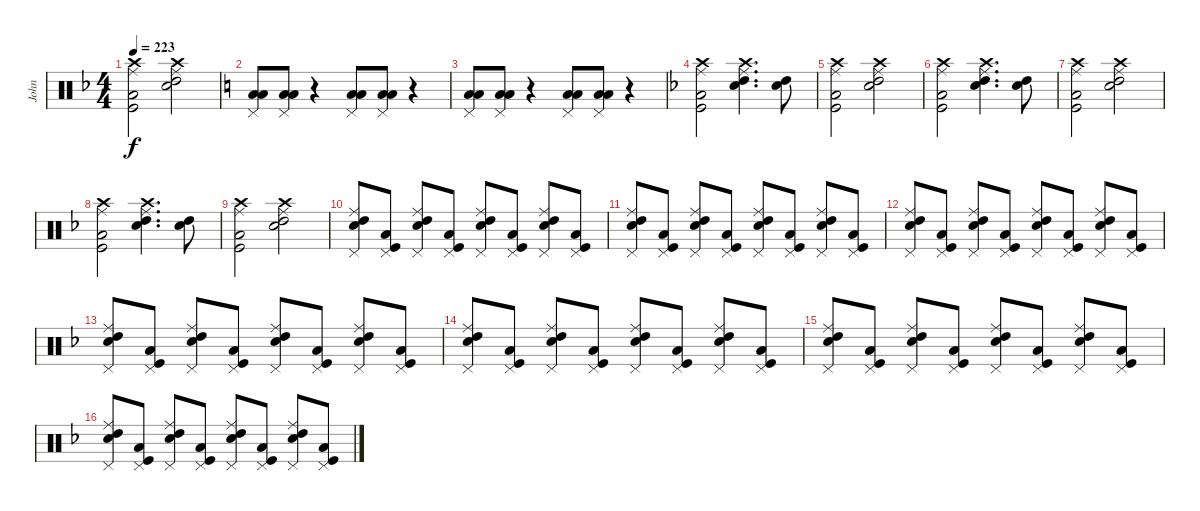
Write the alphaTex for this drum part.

\track ("John" "John") {instrument percussion}
\staff {score}
\articulation defaults
\ts (4 4)
\tempo 223
\clef neutral
\ks f
("Crash high (hit)" "Ride (middle)" "Kick (hit)" "Low Tom (hit)").2{dy f} ("Crash high (hit)" "Ride (middle)" "Snare (hit) 2" "High Tom (hit)").2 |
\ks c
("Pedal Hi-Hat (hit)" "Low Tom (hit)" "Low Tom (hit)").8 ("Pedal Hi-Hat (hit)" "Low Tom (hit)" "Low Tom (hit)").8 r.4 ("Pedal Hi-Hat (hit)" "Low Tom (hit)" "Low Tom (hit)").8 ("Pedal Hi-Hat (hit)" "Low Tom (hit)" "Low Tom (hit)").8 r.4 |
("Pedal Hi-Hat (hit)" "Low Tom (hit)" "Low Tom (hit)").8 ("Pedal Hi-Hat (hit)" "Low Tom (hit)" "Low Tom (hit)").8 r.4 ("Pedal Hi-Hat (hit)" "Low Tom (hit)" "Low Tom (hit)").8 ("Pedal Hi-Hat (hit)" "Low Tom (hit)" "Low Tom (hit)").8 r.4 |
\ks f
("Crash high (hit)" "Ride (middle)" "Kick (hit)" "Low Tom (hit)").2 ("Crash high (hit)" "Ride (middle)" "Snare (hit) 2" "High Tom (hit)").4{d} ("Snare (hit) 2" "High Tom (hit)").8 |
("Crash high (hit)" "Ride (middle)" "Kick (hit)" "Low Tom (hit)").2 ("Crash high (hit)" "Ride (middle)" "Snare (hit) 2" "High Tom (hit)").2 |
("Crash high (hit)" "Ride (middle)" "Kick (hit)" "Low Tom (hit)").2 ("Crash high (hit)" "Ride (middle)" "Snare (hit) 2" "High Tom (hit)").4{d} ("Snare (hit) 2" "High Tom (hit)").8 |
("Crash high (hit)" "Ride (middle)" "Kick (hit)" "Low Tom (hit)").2 ("Crash high (hit)" "Ride (middle)" "Snare (hit) 2" "High Tom (hit)").2 |
("Crash high (hit)" "Ride (middle)" "Kick (hit)" "Low Tom (hit)").2 ("Crash high (hit)" "Ride (middle)" "Snare (hit) 2" "High Tom (hit)").4{d} ("Snare (hit) 2" "High Tom (hit)").8 |
("Crash high (hit)" "Ride (middle)" "Kick (hit)" "Low Tom (hit)").2 ("Crash high (hit)" "Ride (middle)" "Snare (hit) 2" "High Tom (hit)").2 |
("Ride (middle)" "Snare (hit) 2" "High Tom (hit)" "Pedal Hi-Hat (hit)").8 ("Kick (hit)" "Low Tom (hit)" "Pedal Hi-Hat (hit)").8 ("Ride (middle)" "Snare (hit) 2" "High Tom (hit)" "Pedal Hi-Hat (hit)").8 ("Kick (hit)" "Low Tom (hit)" "Pedal Hi-Hat (hit)").8 ("Ride (middle)" "Snare (hit) 2" "High Tom (hit)" "Pedal Hi-Hat (hit)").8 ("Kick (hit)" "Low Tom (hit)" "Pedal Hi-Hat (hit)").8 ("Ride (middle)" "Snare (hit) 2" "High Tom (hit)" "Pedal Hi-Hat (hit)").8 ("Kick (hit)" "Low Tom (hit)" "Pedal Hi-Hat (hit)").8 |
("Ride (middle)" "Snare (hit) 2" "High Tom (hit)" "Pedal Hi-Hat (hit)").8 ("Kick (hit)" "Low Tom (hit)" "Pedal Hi-Hat (hit)").8 ("Ride (middle)" "Snare (hit) 2" "High Tom (hit)" "Pedal Hi-Hat (hit)").8 ("Kick (hit)" "Low Tom (hit)" "Pedal Hi-Hat (hit)").8 ("Ride (middle)" "Snare (hit) 2" "High Tom (hit)" "Pedal Hi-Hat (hit)").8 ("Kick (hit)" "Low Tom (hit)" "Pedal Hi-Hat (hit)").8 ("Ride (middle)" "Snare (hit) 2" "High Tom (hit)" "Pedal Hi-Hat (hit)").8 ("Kick (hit)" "Low Tom (hit)" "Pedal Hi-Hat (hit)").8 |
("Ride (middle)" "Snare (hit) 2" "High Tom (hit)" "Pedal Hi-Hat (hit)").8 ("Kick (hit)" "Low Tom (hit)" "Pedal Hi-Hat (hit)").8 ("Ride (middle)" "Snare (hit) 2" "High Tom (hit)" "Pedal Hi-Hat (hit)").8 ("Kick (hit)" "Low Tom (hit)" "Pedal Hi-Hat (hit)").8 ("Ride (middle)" "Snare (hit) 2" "High Tom (hit)" "Pedal Hi-Hat (hit)").8 ("Kick (hit)" "Low Tom (hit)" "Pedal Hi-Hat (hit)").8 ("Ride (middle)" "Snare (hit) 2" "High Tom (hit)" "Pedal Hi-Hat (hit)").8 ("Kick (hit)" "Low Tom (hit)" "Pedal Hi-Hat (hit)").8 |
("Ride (middle)" "Snare (hit) 2" "High Tom (hit)" "Pedal Hi-Hat (hit)").8 ("Kick (hit)" "Low Tom (hit)" "Pedal Hi-Hat (hit)").8 ("Ride (middle)" "Snare (hit) 2" "High Tom (hit)" "Pedal Hi-Hat (hit)").8 ("Kick (hit)" "Low Tom (hit)" "Pedal Hi-Hat (hit)").8 ("Ride (middle)" "Snare (hit) 2" "High Tom (hit)" "Pedal Hi-Hat (hit)").8 ("Kick (hit)" "Low Tom (hit)" "Pedal Hi-Hat (hit)").8 ("Ride (middle)" "Snare (hit) 2" "High Tom (hit)" "Pedal Hi-Hat (hit)").8 ("Kick (hit)" "Low Tom (hit)" "Pedal Hi-Hat (hit)").8 |
("Ride (middle)" "Snare (hit) 2" "High Tom (hit)" "Pedal Hi-Hat (hit)").8 ("Kick (hit)" "Low Tom (hit)" "Pedal Hi-Hat (hit)").8 ("Ride (middle)" "Snare (hit) 2" "High Tom (hit)" "Pedal Hi-Hat (hit)").8 ("Kick (hit)" "Low Tom (hit)" "Pedal Hi-Hat (hit)").8 ("Ride (middle)" "Snare (hit) 2" "High Tom (hit)" "Pedal Hi-Hat (hit)").8 ("Kick (hit)" "Low Tom (hit)" "Pedal Hi-Hat (hit)").8 ("Ride (middle)" "Snare (hit) 2" "High Tom (hit)" "Pedal Hi-Hat (hit)").8 ("Kick (hit)" "Low Tom (hit)" "Pedal Hi-Hat (hit)").8 |
("Ride (middle)" "Snare (hit) 2" "High Tom (hit)" "Pedal Hi-Hat (hit)").8 ("Kick (hit)" "Low Tom (hit)" "Pedal Hi-Hat (hit)").8 ("Ride (middle)" "Snare (hit) 2" "High Tom (hit)" "Pedal Hi-Hat (hit)").8 ("Kick (hit)" "Low Tom (hit)" "Pedal Hi-Hat (hit)").8 ("Ride (middle)" "Snare (hit) 2" "High Tom (hit)" "Pedal Hi-Hat (hit)").8 ("Kick (hit)" "Low Tom (hit)" "Pedal Hi-Hat (hit)").8 ("Ride (middle)" "Snare (hit) 2" "High Tom (hit)" "Pedal Hi-Hat (hit)").8 ("Kick (hit)" "Low Tom (hit)" "Pedal Hi-Hat (hit)").8 |
("Ride (middle)" "Snare (hit) 2" "High Tom (hit)" "Pedal Hi-Hat (hit)").8 ("Kick (hit)" "Low Tom (hit)" "Pedal Hi-Hat (hit)").8 ("Ride (middle)" "Snare (hit) 2" "High Tom (hit)" "Pedal Hi-Hat (hit)").8 ("Kick (hit)" "Low Tom (hit)" "Pedal Hi-Hat (hit)").8 ("Ride (middle)" "Snare (hit) 2" "High Tom (hit)" "Pedal Hi-Hat (hit)").8 ("Kick (hit)" "Low Tom (hit)" "Pedal Hi-Hat (hit)").8 ("Ride (middle)" "Snare (hit) 2" "High Tom (hit)" "Pedal Hi-Hat (hit)").8 ("Kick (hit)" "Low Tom (hit)" "Pedal Hi-Hat (hit)").8
